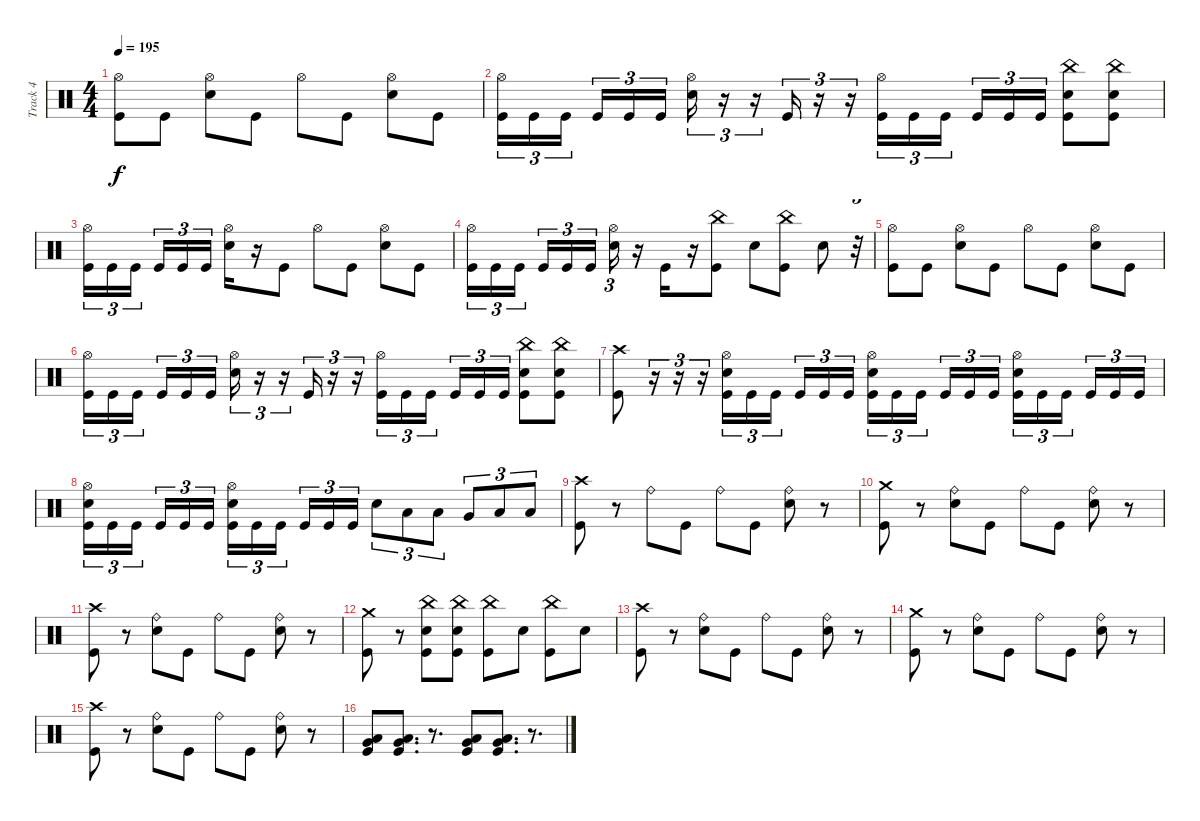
\track ("Track 4" "Track 4") {instrument percussion}
\staff {score}
\articulation defaults
\ts (4 4)
\tempo 195
\clef neutral
\ks c
("Hi-Hat (open)" "Kick (hit)").8{dy f} "Kick (hit)".8 ("Hi-Hat (open)" "Electric Snare (hit)").8 "Kick (hit)".8 "Hi-Hat (open)".8 "Kick (hit)".8 ("Hi-Hat (open)" "Electric Snare (hit)").8 "Kick (hit)".8 |
("Hi-Hat (open)" "Kick (hit)").16{tu (3 2)} "Kick (hit)".16{tu (3 2)} "Kick (hit)".16{tu (3 2)} "Kick (hit)".16{tu (3 2)} "Kick (hit)".16{tu (3 2)} "Kick (hit)".16{tu (3 2)} ("Hi-Hat (open)" "Electric Snare (hit)").16{tu (3 2)} r.16{tu (3 2)} r.16{tu (3 2)} "Kick (hit)".16{tu (3 2)} r.16{tu (3 2)} r.16{tu (3 2)} ("Hi-Hat (open)" "Kick (hit)").16{tu (3 2)} "Kick (hit)".16{tu (3 2)} "Kick (hit)".16{tu (3 2)} "Kick (hit)".16{tu (3 2)} "Kick (hit)".16{tu (3 2)} "Kick (hit)".16{tu (3 2)} ("China (hit)" "Electric Snare (hit)" "Kick (hit)").8 ("China (hit)" "Electric Snare (hit)" "Kick (hit)").8 |
("Hi-Hat (open)" "Kick (hit)").16{tu (3 2)} "Kick (hit)".16{tu (3 2)} "Kick (hit)".16{tu (3 2)} "Kick (hit)".16{tu (3 2)} "Kick (hit)".16{tu (3 2)} "Kick (hit)".16{tu (3 2)} ("Hi-Hat (open)" "Electric Snare (hit)").16 r.16 "Kick (hit)".8 "Hi-Hat (open)".8 "Kick (hit)".8 ("Hi-Hat (open)" "Electric Snare (hit)").8 "Kick (hit)".8 |
("Hi-Hat (open)" "Kick (hit)").16{tu (3 2)} "Kick (hit)".16{tu (3 2)} "Kick (hit)".16{tu (3 2)} "Kick (hit)".16{tu (3 2)} "Kick (hit)".16{tu (3 2)} "Kick (hit)".16{tu (3 2)} ("Hi-Hat (open)" "Electric Snare (hit)").16{tu (3 2)} r.16 "Kick (hit)".16 r.16 ("China (hit)" "Kick (hit)").8 "Electric Snare (hit)".8 ("China (hit)" "Kick (hit)").8 "Electric Snare (hit)".8 r.32{tu (3 2)} |
("Hi-Hat (open)" "Kick (hit)").8 "Kick (hit)".8 ("Hi-Hat (open)" "Electric Snare (hit)").8 "Kick (hit)".8 "Hi-Hat (open)".8 "Kick (hit)".8 ("Hi-Hat (open)" "Electric Snare (hit)").8 "Kick (hit)".8 |
("Hi-Hat (open)" "Kick (hit)").16{tu (3 2)} "Kick (hit)".16{tu (3 2)} "Kick (hit)".16{tu (3 2)} "Kick (hit)".16{tu (3 2)} "Kick (hit)".16{tu (3 2)} "Kick (hit)".16{tu (3 2)} ("Hi-Hat (open)" "Electric Snare (hit)").16{tu (3 2)} r.16{tu (3 2)} r.16{tu (3 2)} "Kick (hit)".16{tu (3 2)} r.16{tu (3 2)} r.16{tu (3 2)} ("Hi-Hat (open)" "Kick (hit)").16{tu (3 2)} "Kick (hit)".16{tu (3 2)} "Kick (hit)".16{tu (3 2)} "Kick (hit)".16{tu (3 2)} "Kick (hit)".16{tu (3 2)} "Kick (hit)".16{tu (3 2)} ("China (hit)" "Electric Snare (hit)" "Kick (hit)").8 ("China (hit)" "Electric Snare (hit)" "Kick (hit)").8 |
("Crash high (hit)" "Kick (hit)").8 r.16{tu (3 2)} r.16{tu (3 2)} r.16{tu (3 2)} ("Hi-Hat (open)" "Electric Snare (hit)" "Kick (hit)").16{tu (3 2)} "Kick (hit)".16{tu (3 2)} "Kick (hit)".16{tu (3 2)} "Kick (hit)".16{tu (3 2)} "Kick (hit)".16{tu (3 2)} "Kick (hit)".16{tu (3 2)} ("Hi-Hat (open)" "Electric Snare (hit)" "Kick (hit)").16{tu (3 2)} "Kick (hit)".16{tu (3 2)} "Kick (hit)".16{tu (3 2)} "Kick (hit)".16{tu (3 2)} "Kick (hit)".16{tu (3 2)} "Kick (hit)".16{tu (3 2)} ("Hi-Hat (open)" "Electric Snare (hit)" "Kick (hit)").16{tu (3 2)} "Kick (hit)".16{tu (3 2)} "Kick (hit)".16{tu (3 2)} "Kick (hit)".16{tu (3 2)} "Kick (hit)".16{tu (3 2)} "Kick (hit)".16{tu (3 2)} |
("Hi-Hat (open)" "Electric Snare (hit)" "Kick (hit)").16{tu (3 2)} "Kick (hit)".16{tu (3 2)} "Kick (hit)".16{tu (3 2)} "Kick (hit)".16{tu (3 2)} "Kick (hit)".16{tu (3 2)} "Kick (hit)".16{tu (3 2)} ("Hi-Hat (open)" "Electric Snare (hit)" "Kick (hit)").16{tu (3 2)} "Kick (hit)".16{tu (3 2)} "Kick (hit)".16{tu (3 2)} "Kick (hit)".16{tu (3 2)} "Kick (hit)".16{tu (3 2)} "Kick (hit)".16{tu (3 2)} "Electric Snare (hit)".8{tu (3 2)} "Low Tom (hit)".8{tu (3 2)} "Low Tom (hit)".8{tu (3 2)} "Very Low Tom (hit)".8{tu (3 2)} "Low Floor Tom (hit)".8{tu (3 2)} "Low Floor Tom (hit)".8{tu (3 2)} |
("Crash high (hit)" "Kick (hit)").8 r.8 "Ride (bell)".8 "Kick (hit)".8 "Ride (bell)".8 "Kick (hit)".8 ("Ride (bell)" "Electric Snare (hit)").8 r.8 |
("Crash medium (hit)" "Kick (hit)").8 r.8 ("Ride (bell)" "Electric Snare (hit)").8 "Kick (hit)".8 "Ride (bell)".8 "Kick (hit)".8 ("Ride (bell)" "Electric Snare (hit)").8 r.8 |
("Crash high (hit)" "Kick (hit)").8 r.8 ("Ride (bell)" "Electric Snare (hit)").8 "Kick (hit)".8 "Ride (bell)".8 "Kick (hit)".8 ("Ride (bell)" "Electric Snare (hit)").8 r.8 |
("Crash medium (hit)" "Kick (hit)").8 r.8 ("China (hit)" "Electric Snare (hit)" "Kick (hit)").8 ("China (hit)" "Electric Snare (hit)" "Kick (hit)").8 ("China (hit)" "Kick (hit)").8 "Electric Snare (hit)".8 ("China (hit)" "Kick (hit)").8 "Electric Snare (hit)".8 |
("Crash high (hit)" "Kick (hit)").8 r.8 ("Ride (bell)" "Electric Snare (hit)").8 "Kick (hit)".8 "Ride (bell)".8 "Kick (hit)".8 ("Ride (bell)" "Electric Snare (hit)").8 r.8 |
("Crash medium (hit)" "Kick (hit)").8 r.8 ("Ride (bell)" "Electric Snare (hit)").8 "Kick (hit)".8 "Ride (bell)".8 "Kick (hit)".8 ("Ride (bell)" "Electric Snare (hit)").8 r.8 |
("Crash high (hit)" "Kick (hit)").8 r.8 ("Ride (bell)" "Electric Snare (hit)").8 "Kick (hit)".8 "Ride (bell)".8 "Kick (hit)".8 ("Ride (bell)" "Electric Snare (hit)").8 r.8 |
("Very Low Tom (hit)" "Low Floor Tom (hit)" "Kick (hit)").8 ("Very Low Tom (hit)" "Low Floor Tom (hit)" "Kick (hit)").8{d} r.8{d} ("Very Low Tom (hit)" "Low Floor Tom (hit)" "Kick (hit)").8 ("Very Low Tom (hit)" "Low Floor Tom (hit)" "Kick (hit)").8{d} r.8{d}
